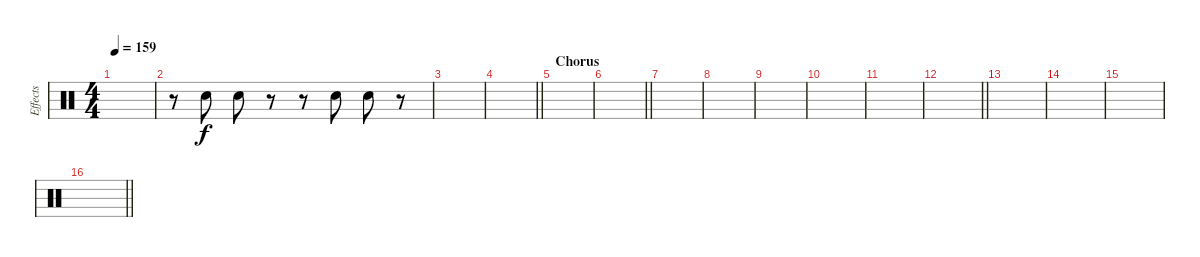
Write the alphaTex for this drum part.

\track ("Effects" "Effects") {instrument percussion}
\staff {score}
\articulation defaults
\ts (4 4)
\tempo 159
\clef neutral
\ks c
|
r.8 "Hand Clap (hit)".8 "Hand Clap (hit)".8 r.8 r.8 "Hand Clap (hit)".8 "Hand Clap (hit)".8 r.8 |
|
\barLineRight lightlight
|
\section ("" "Chorus")
|
\barLineRight lightlight
|
|
|
|
|
|
\barLineRight lightlight
|
\section ("" "")
|
|
|
\barLineRight lightlight
